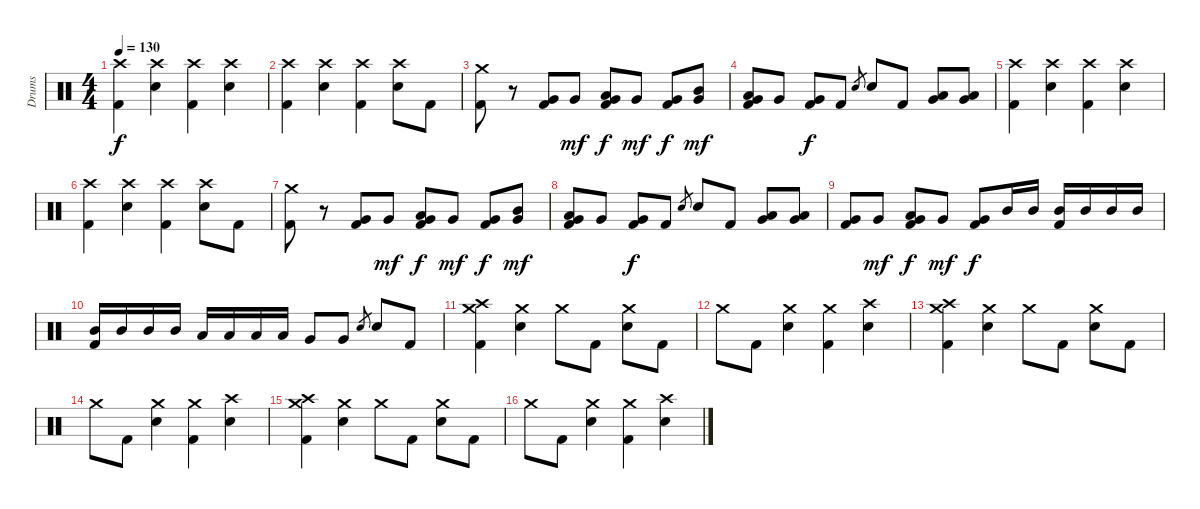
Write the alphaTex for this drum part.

\track ("Drums" "Drums") {instrument percussion}
\staff {score}
\articulation defaults
\ts (4 4)
\tempo 130
\clef neutral
\ks c
("Crash high (hit)" "Kick (hit) 2").4{dy f} ("Crash high (hit)" "Electric Snare (hit)").4 ("Crash high (hit)" "Kick (hit) 2").4 ("Crash high (hit)" "Electric Snare (hit)").4 |
("Crash high (hit)" "Kick (hit) 2").4 ("Crash high (hit)" "Electric Snare (hit)").4 ("Crash high (hit)" "Kick (hit) 2").4 ("Crash high (hit)" "Electric Snare (hit)").8 "Kick (hit) 2".8 |
("Crash medium (hit)" "Kick (hit) 2").8 r.8 ("Very Low Tom (hit)" "Kick (hit) 2").8 "Very Low Tom (hit)".8{dy mf} ("Low Tom (hit)" "Very Low Tom (hit)" "Kick (hit) 2").8{dy f} "Very Low Tom (hit)".8{dy mf} ("Very Low Tom (hit)" "Kick (hit) 2").8{dy f} ("Mid Tom (hit)" "Very Low Tom (hit)").8{dy mf} |
("Low Tom (hit)" "Very Low Tom (hit)" "Kick (hit) 2").8 "Very Low Tom (hit)".8 ("Very Low Tom (hit)" "Kick (hit) 2").8{dy f} "Kick (hit) 2".8 "Electric Snare (hit)".8{gr} "Electric Snare (hit)".8 "Kick (hit) 2".8 ("Low Tom (hit)" "Very Low Tom (hit)").8 ("Low Tom (hit)" "Very Low Tom (hit)").8 |
("Crash high (hit)" "Kick (hit) 2").4 ("Crash high (hit)" "Electric Snare (hit)").4 ("Crash high (hit)" "Kick (hit) 2").4 ("Crash high (hit)" "Electric Snare (hit)").4 |
("Crash high (hit)" "Kick (hit) 2").4 ("Crash high (hit)" "Electric Snare (hit)").4 ("Crash high (hit)" "Kick (hit) 2").4 ("Crash high (hit)" "Electric Snare (hit)").8 "Kick (hit) 2".8 |
("Crash medium (hit)" "Kick (hit) 2").8 r.8 ("Very Low Tom (hit)" "Kick (hit) 2").8 "Very Low Tom (hit)".8{dy mf} ("Low Tom (hit)" "Very Low Tom (hit)" "Kick (hit) 2").8{dy f} "Very Low Tom (hit)".8{dy mf} ("Very Low Tom (hit)" "Kick (hit) 2").8{dy f} ("Mid Tom (hit)" "Very Low Tom (hit)").8{dy mf} |
("Low Tom (hit)" "Very Low Tom (hit)" "Kick (hit) 2").8 "Very Low Tom (hit)".8 ("Very Low Tom (hit)" "Kick (hit) 2").8{dy f} "Kick (hit) 2".8 "Electric Snare (hit)".8{gr} "Electric Snare (hit)".8 "Kick (hit) 2".8 ("Low Tom (hit)" "Very Low Tom (hit)").8 ("Low Tom (hit)" "Very Low Tom (hit)").8 |
("Very Low Tom (hit)" "Kick (hit) 2").8 "Very Low Tom (hit)".8{dy mf} ("Low Tom (hit)" "Very Low Tom (hit)" "Kick (hit) 2").8{dy f} "Very Low Tom (hit)".8{dy mf} ("Very Low Tom (hit)" "Kick (hit) 2").8{dy f} "Mid Tom (hit)".16 "Mid Tom (hit)".16 ("Mid Tom (hit)" "Kick (hit) 2").16 "Mid Tom (hit)".16 "Mid Tom (hit)".16 "Mid Tom (hit)".16 |
("Mid Tom (hit)" "Kick (hit) 2").16 "Mid Tom (hit)".16 "Mid Tom (hit)".16 "Mid Tom (hit)".16 "Low Tom (hit)".16 "Low Tom (hit)".16 "Low Tom (hit)".16 "Low Tom (hit)".16 "Very Low Tom (hit)".8 "Very Low Tom (hit)".8 "Electric Snare (hit)".8{gr} "Electric Snare (hit)".8 "Kick (hit) 2".8 |
("Crash medium (hit)" "Crash high (hit)" "Kick (hit) 2").4 ("Crash medium (hit)" "Electric Snare (hit)").4 "Crash medium (hit)".8 "Kick (hit) 2".8 ("Crash medium (hit)" "Electric Snare (hit)").8 "Kick (hit) 2".8 |
"Crash medium (hit)".8 "Kick (hit) 2".8 ("Crash medium (hit)" "Electric Snare (hit)").4 ("Crash medium (hit)" "Kick (hit) 2").4 ("Crash high (hit)" "Electric Snare (hit)").4 |
("Crash medium (hit)" "Crash high (hit)" "Kick (hit) 2").4 ("Crash medium (hit)" "Electric Snare (hit)").4 "Crash medium (hit)".8 "Kick (hit) 2".8 ("Crash medium (hit)" "Electric Snare (hit)").8 "Kick (hit) 2".8 |
"Crash medium (hit)".8 "Kick (hit) 2".8 ("Crash medium (hit)" "Electric Snare (hit)").4 ("Crash medium (hit)" "Kick (hit) 2").4 ("Crash high (hit)" "Electric Snare (hit)").4 |
("Crash medium (hit)" "Crash high (hit)" "Kick (hit) 2").4 ("Crash medium (hit)" "Electric Snare (hit)").4 "Crash medium (hit)".8 "Kick (hit) 2".8 ("Crash medium (hit)" "Electric Snare (hit)").8 "Kick (hit) 2".8 |
"Crash medium (hit)".8 "Kick (hit) 2".8 ("Crash medium (hit)" "Electric Snare (hit)").4 ("Crash medium (hit)" "Kick (hit) 2").4 ("Crash high (hit)" "Electric Snare (hit)").4
